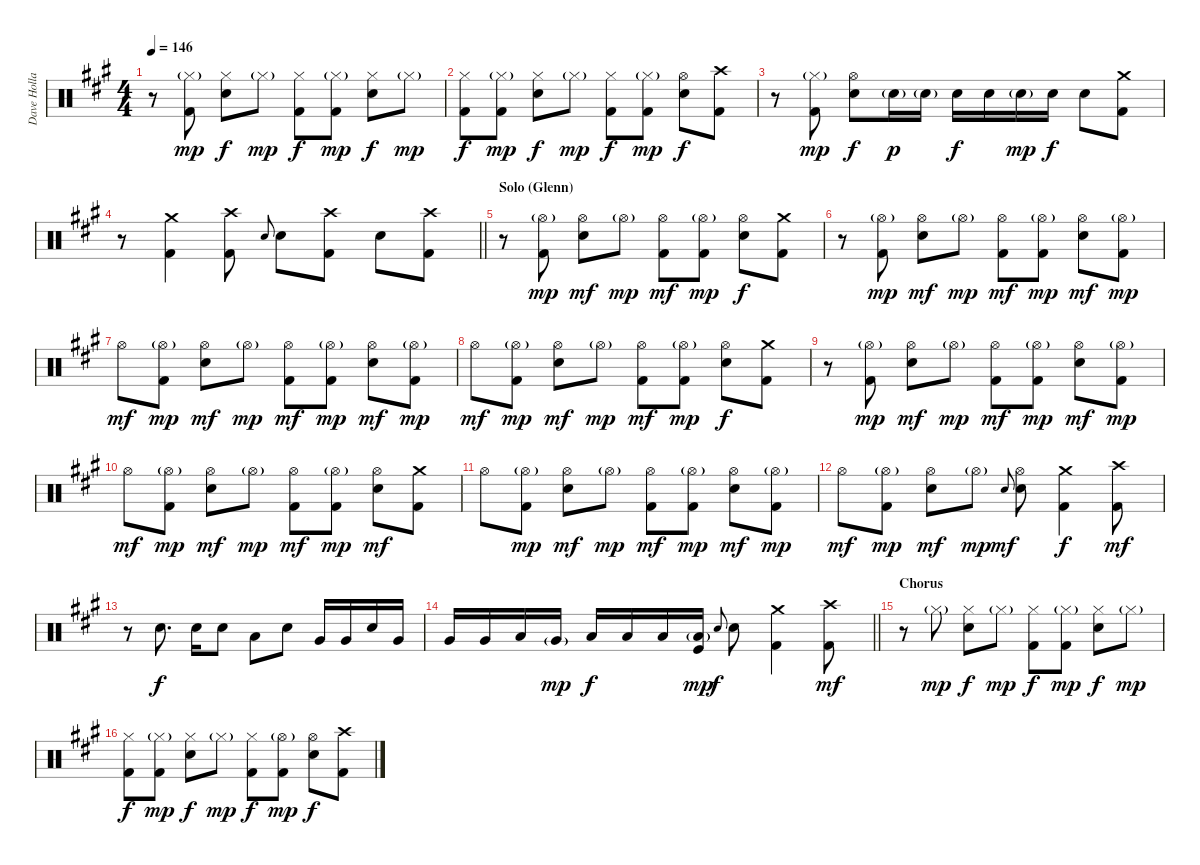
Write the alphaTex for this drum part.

\track ("Dave Holland" "Dave Holla") {instrument percussion}
\staff {score}
\articulation defaults
\ts (4 4)
\tempo 146
\clef neutral
\ks a
r.8{dy f} ("Hi-Hat (closed)"{g} "Kick (hit) 2").8{dy mp} ("Hi-Hat (closed)" "Electric Snare (hit)").8{dy f} "Hi-Hat (closed)"{g}.8{dy mp} ("Hi-Hat (closed)" "Kick (hit) 2").8{dy f} ("Hi-Hat (closed)"{g} "Kick (hit) 2").8{dy mp} ("Hi-Hat (closed)" "Electric Snare (hit)").8{dy f} "Hi-Hat (closed)"{g}.8{dy mp} |
("Hi-Hat (closed)" "Kick (hit) 2").8{dy f} ("Hi-Hat (closed)"{g} "Kick (hit) 2").8{dy mp} ("Hi-Hat (closed)" "Electric Snare (hit)").8{dy f} "Hi-Hat (closed)"{g}.8{dy mp} ("Hi-Hat (closed)" "Kick (hit) 2").8{dy f} ("Hi-Hat (closed)"{g} "Kick (hit) 2").8{dy mp} ("Hi-Hat (open)" "Electric Snare (hit)").8{dy f} ("Crash high (hit)" "Kick (hit) 2").8 |
r.8 ("Hi-Hat (closed)"{g} "Kick (hit) 2").8{dy mp} ("Hi-Hat (open)" "Electric Snare (hit)").8{dy f} "Electric Snare (hit)"{g}.16{dy p} "Electric Snare (hit)"{g}.16 "Electric Snare (hit)".16{dy f} "Electric Snare (hit)".16 "Electric Snare (hit)"{g}.16{dy mp} "Electric Snare (hit)".16{dy f} "Electric Snare (hit)".8 ("Crash medium (hit)" "Kick (hit) 2").8 |
\barLineRight lightlight
r.8 ("Crash medium (hit)" "Kick (hit) 2").4 ("Crash high (hit)" "Kick (hit) 2").8 "Electric Snare (hit)".8{gr onbeat} "Electric Snare (hit)".8 ("Crash high (hit)" "Kick (hit) 2").8 "Electric Snare (hit)".8 ("Crash high (hit)" "Kick (hit) 2").8 |
\section ("" "Solo (Glenn)")
r.8 ("Hi-Hat (open)"{g} "Kick (hit) 2").8{dy mp} ("Hi-Hat (open)" "Electric Snare (hit)").8{dy mf} "Hi-Hat (open)"{g}.8{dy mp} ("Hi-Hat (open)" "Kick (hit) 2").8{dy mf} ("Hi-Hat (open)"{g} "Kick (hit) 2").8{dy mp} ("Hi-Hat (open)" "Electric Snare (hit)").8{dy f} ("Crash medium (hit)" "Kick (hit) 2").8 |
r.8 ("Hi-Hat (open)"{g} "Kick (hit) 2").8{dy mp} ("Hi-Hat (open)" "Electric Snare (hit)").8{dy mf} "Hi-Hat (open)"{g}.8{dy mp} ("Hi-Hat (open)" "Kick (hit) 2").8{dy mf} ("Hi-Hat (open)"{g} "Kick (hit) 2").8{dy mp} ("Hi-Hat (open)" "Electric Snare (hit)").8{dy mf} ("Hi-Hat (open)"{g} "Kick (hit) 2").8{dy mp} |
"Hi-Hat (open)".8{dy mf} ("Hi-Hat (open)"{g} "Kick (hit) 2").8{dy mp} ("Hi-Hat (open)" "Electric Snare (hit)").8{dy mf} "Hi-Hat (open)"{g}.8{dy mp} ("Hi-Hat (open)" "Kick (hit) 2").8{dy mf} ("Hi-Hat (open)"{g} "Kick (hit) 2").8{dy mp} ("Hi-Hat (open)" "Electric Snare (hit)").8{dy mf} ("Hi-Hat (open)"{g} "Kick (hit) 2").8{dy mp} |
"Hi-Hat (open)".8{dy mf} ("Hi-Hat (open)"{g} "Kick (hit) 2").8{dy mp} ("Hi-Hat (open)" "Electric Snare (hit)").8{dy mf} "Hi-Hat (open)"{g}.8{dy mp} ("Hi-Hat (open)" "Kick (hit) 2").8{dy mf} ("Hi-Hat (open)"{g} "Kick (hit) 2").8{dy mp} ("Hi-Hat (open)" "Electric Snare (hit)").8{dy f} ("Crash medium (hit)" "Kick (hit) 2").8 |
r.8 ("Hi-Hat (open)"{g} "Kick (hit) 2").8{dy mp} ("Hi-Hat (open)" "Electric Snare (hit)").8{dy mf} "Hi-Hat (open)"{g}.8{dy mp} ("Hi-Hat (open)" "Kick (hit) 2").8{dy mf} ("Hi-Hat (open)"{g} "Kick (hit) 2").8{dy mp} ("Hi-Hat (open)" "Electric Snare (hit)").8{dy mf} ("Hi-Hat (open)"{g} "Kick (hit) 2").8{dy mp} |
"Hi-Hat (open)".8{dy mf} ("Hi-Hat (open)"{g} "Kick (hit) 2").8{dy mp} ("Hi-Hat (open)" "Electric Snare (hit)").8{dy mf} "Hi-Hat (open)"{g}.8{dy mp} ("Hi-Hat (open)" "Kick (hit) 2").8{dy mf} ("Hi-Hat (open)"{g} "Kick (hit) 2").8{dy mp} ("Hi-Hat (open)" "Electric Snare (hit)").8{dy mf} ("Crash medium (hit)" "Kick (hit) 2").8 |
"Hi-Hat (open)".8 ("Hi-Hat (open)"{g} "Kick (hit) 2").8{dy mp} ("Hi-Hat (open)" "Electric Snare (hit)").8{dy mf} "Hi-Hat (open)"{g}.8{dy mp} ("Hi-Hat (open)" "Kick (hit) 2").8{dy mf} ("Hi-Hat (open)"{g} "Kick (hit) 2").8{dy mp} ("Hi-Hat (open)" "Electric Snare (hit)").8{dy mf} ("Hi-Hat (open)"{g} "Kick (hit) 2").8{dy mp} |
"Hi-Hat (open)".8{dy mf} ("Hi-Hat (open)"{g} "Kick (hit) 2").8{dy mp} ("Hi-Hat (open)" "Electric Snare (hit)").8{dy mf} "Hi-Hat (open)"{g}.8{dy mp} "Electric Snare (hit)".8{gr onbeat dy mf} ("Hi-Hat (open)" "Electric Snare (hit)").8 ("Crash medium (hit)" "Kick (hit) 2").4{dy f} ("Crash high (hit)" "Kick (hit) 2").8{dy mf} |
r.8 "Electric Snare (hit)".8{d dy f} "Electric Snare (hit)".16 "Electric Snare (hit)".8 "Low Tom (hit)".8 "Electric Snare (hit)".8 "Very Low Tom (hit)".16 "Very Low Tom (hit)".16 "Electric Snare (hit)".16 "Very Low Tom (hit)".16 |
\barLineRight lightlight "Very Low Tom (hit)".16 "Very Low Tom (hit)".16 "Low Tom (hit)".16 "Very Low Tom (hit)"{g}.16{dy mp} "Low Floor Tom (hit)".16{dy f} "Low Floor Tom (hit)".16 "Low Floor Tom (hit)".16
("Low Floor Tom (hit)"{g} "Kick (hit)").16{dy mp} "Electric Snare (hit)".8{gr onbeat dy f} "Electric Snare (hit)".8 ("Crash medium (hit)" "Kick (hit) 2").4 ("Crash high (hit)" "Kick (hit) 2").8{dy mf} |
\section ("" "Chorus")
r.8 "Hi-Hat (closed)"{g}.8{dy mp} ("Hi-Hat (closed)" "Electric Snare (hit)").8{dy f} "Hi-Hat (closed)"{g}.8{dy mp} ("Hi-Hat (closed)" "Kick (hit) 2").8{dy f} ("Hi-Hat (closed)"{g} "Kick (hit) 2").8{dy mp} ("Hi-Hat (closed)" "Electric Snare (hit)").8{dy f} "Hi-Hat (closed)"{g}.8{dy mp} |
("Hi-Hat (closed)" "Kick (hit) 2").8{dy f} ("Hi-Hat (closed)"{g} "Kick (hit) 2").8{dy mp} ("Hi-Hat (closed)" "Electric Snare (hit)").8{dy f} "Hi-Hat (closed)"{g}.8{dy mp} ("Hi-Hat (closed)" "Kick (hit) 2").8{dy f} ("Hi-Hat (open)"{g} "Kick (hit) 2").8{dy mp} ("Hi-Hat (open)" "Electric Snare (hit)").8{dy f} ("Crash high (hit)" "Kick (hit) 2").8
